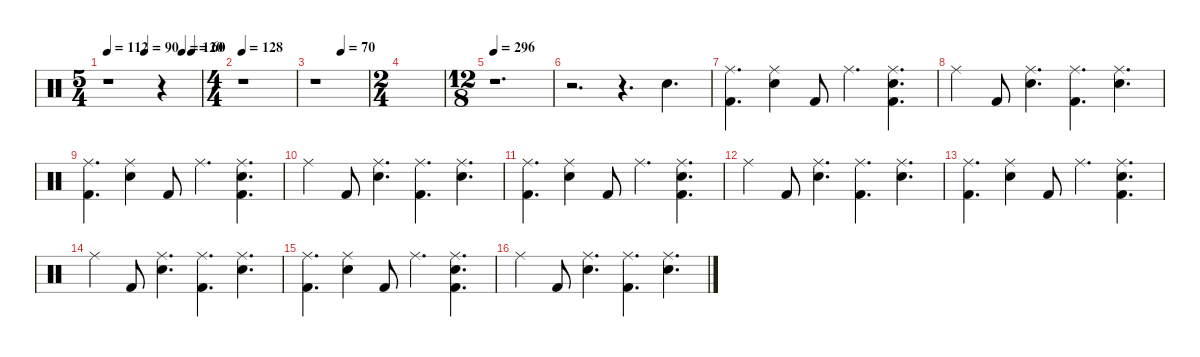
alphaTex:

\hideDynamics
\bracketExtendMode nobrackets
\singleTrackTrackNamePolicy hidden
\multiTrackTrackNamePolicy hidden
\firstSystemTrackNameMode fullname
\firstSystemTrackNameOrientation horizontal
\otherSystemsTrackNameOrientation horizontal
\track ("Drumkit" "Drums") {instrument percussion}
\staff {score}
\articulation defaults
\ts (5 4)
\tempo 112
\tempo (90 0.4)
\tempo (120 0.8)
\tempo (60 0.9)
\clef neutral
\ks c
r.1{dy ff beam Down} r.4{beam Down} |
\ts (4 4)
\tempo 128
r.1{beam Down} |
\tempo (70 0.5)
r.1{beam Down} |
\ts (2 4)
|
\ts (12 8)
\tempo 296
r.1{d beam Down} |
r.2{d beam Down} r.4{d beam Down} "Snare (hit) 2".4{d dy f beam Down} |
("Ride (middle)" "Kick (hit) 2").4{d beam Down} ("Ride (middle)" "Snare (hit) 2").4{beam Down} "Kick (hit) 2".8{beam Up} "Ride (middle)".4{d beam Down} ("Ride (middle)" "Snare (hit) 2" "Kick (hit) 2").4{d beam Down} |
"Ride (middle)".4{beam Down} "Kick (hit) 2".8{beam Up} ("Ride (middle)" "Snare (hit) 2").4{d beam Down} ("Ride (middle)" "Kick (hit) 2").4{d beam Down} ("Ride (middle)" "Snare (hit) 2").4{d beam Down} |
("Ride (middle)" "Kick (hit) 2").4{d beam Down} ("Ride (middle)" "Snare (hit) 2").4{beam Down} "Kick (hit) 2".8{beam Up} "Ride (middle)".4{d beam Down} ("Ride (middle)" "Snare (hit) 2" "Kick (hit) 2").4{d beam Down} |
"Ride (middle)".4{beam Down} "Kick (hit) 2".8{beam Up} ("Ride (middle)" "Snare (hit) 2").4{d beam Down} ("Ride (middle)" "Kick (hit) 2").4{d beam Down} ("Ride (middle)" "Snare (hit) 2").4{d beam Down} |
("Ride (middle)" "Kick (hit) 2").4{d beam Down} ("Ride (middle)" "Snare (hit) 2").4{beam Down} "Kick (hit) 2".8{beam Up} "Ride (middle)".4{d beam Down} ("Ride (middle)" "Snare (hit) 2" "Kick (hit) 2").4{d beam Down} |
"Ride (middle)".4{beam Down} "Kick (hit) 2".8{beam Up} ("Ride (middle)" "Snare (hit) 2").4{d beam Down} ("Ride (middle)" "Kick (hit) 2").4{d beam Down} ("Ride (middle)" "Snare (hit) 2").4{d beam Down} |
("Ride (middle)" "Kick (hit) 2").4{d beam Down} ("Ride (middle)" "Snare (hit) 2").4{beam Down} "Kick (hit) 2".8{beam Up} "Ride (middle)".4{d beam Down} ("Ride (middle)" "Snare (hit) 2" "Kick (hit) 2").4{d beam Down} |
"Ride (middle)".4{beam Down} "Kick (hit) 2".8{beam Up} ("Ride (middle)" "Snare (hit) 2").4{d beam Down} ("Ride (middle)" "Kick (hit) 2").4{d beam Down} ("Ride (middle)" "Snare (hit) 2").4{d beam Down} |
("Ride (middle)" "Kick (hit) 2").4{d beam Down} ("Ride (middle)" "Snare (hit) 2").4{beam Down} "Kick (hit) 2".8{beam Up} "Ride (middle)".4{d beam Down} ("Ride (middle)" "Snare (hit) 2" "Kick (hit) 2").4{d beam Down} |
"Ride (middle)".4{beam Down} "Kick (hit) 2".8{beam Up} ("Ride (middle)" "Snare (hit) 2").4{d beam Down} ("Ride (middle)" "Kick (hit) 2").4{d beam Down} ("Ride (middle)" "Snare (hit) 2").4{d beam Down}
